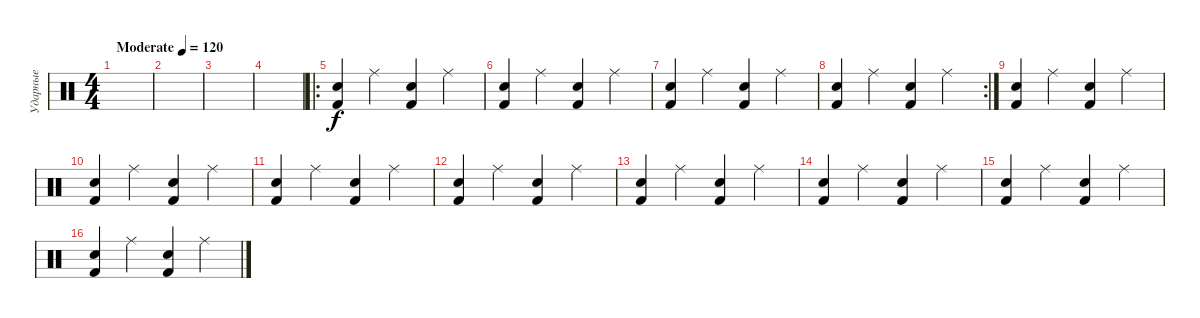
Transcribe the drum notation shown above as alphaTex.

\track ("Ударные" "Ударные") {instrument percussion}
\staff {score}
\articulation defaults
\ts (4 4)
\tempo (120 "Moderate")
\clef neutral
\ks c
|
|
|
|
\ro
("Snare (hit) 2" "Kick (hit) 2").4 "Ride (middle)".4 ("Snare (hit) 2" "Kick (hit) 2").4 "Ride (middle)".4 |
("Snare (hit) 2" "Kick (hit) 2").4 "Ride (middle)".4 ("Snare (hit) 2" "Kick (hit) 2").4 "Ride (middle)".4 |
("Snare (hit) 2" "Kick (hit) 2").4 "Ride (middle)".4 ("Snare (hit) 2" "Kick (hit) 2").4 "Ride (middle)".4 |
\rc 2
("Snare (hit) 2" "Kick (hit) 2").4 "Ride (middle)".4 ("Snare (hit) 2" "Kick (hit) 2").4 "Ride (middle)".4 |
("Snare (hit) 2" "Kick (hit) 2").4 "Ride (middle)".4 ("Snare (hit) 2" "Kick (hit) 2").4 "Ride (middle)".4 |
("Snare (hit) 2" "Kick (hit) 2").4 "Ride (middle)".4 ("Snare (hit) 2" "Kick (hit) 2").4 "Ride (middle)".4 |
("Snare (hit) 2" "Kick (hit) 2").4 "Ride (middle)".4 ("Snare (hit) 2" "Kick (hit) 2").4 "Ride (middle)".4 |
("Snare (hit) 2" "Kick (hit) 2").4 "Ride (middle)".4 ("Snare (hit) 2" "Kick (hit) 2").4 "Ride (middle)".4 |
("Snare (hit) 2" "Kick (hit) 2").4 "Ride (middle)".4 ("Snare (hit) 2" "Kick (hit) 2").4 "Ride (middle)".4 |
("Snare (hit) 2" "Kick (hit) 2").4 "Ride (middle)".4 ("Snare (hit) 2" "Kick (hit) 2").4 "Ride (middle)".4 |
("Snare (hit) 2" "Kick (hit) 2").4 "Ride (middle)".4 ("Snare (hit) 2" "Kick (hit) 2").4 "Ride (middle)".4 |
("Snare (hit) 2" "Kick (hit) 2").4 "Ride (middle)".4 ("Snare (hit) 2" "Kick (hit) 2").4 "Ride (middle)".4
